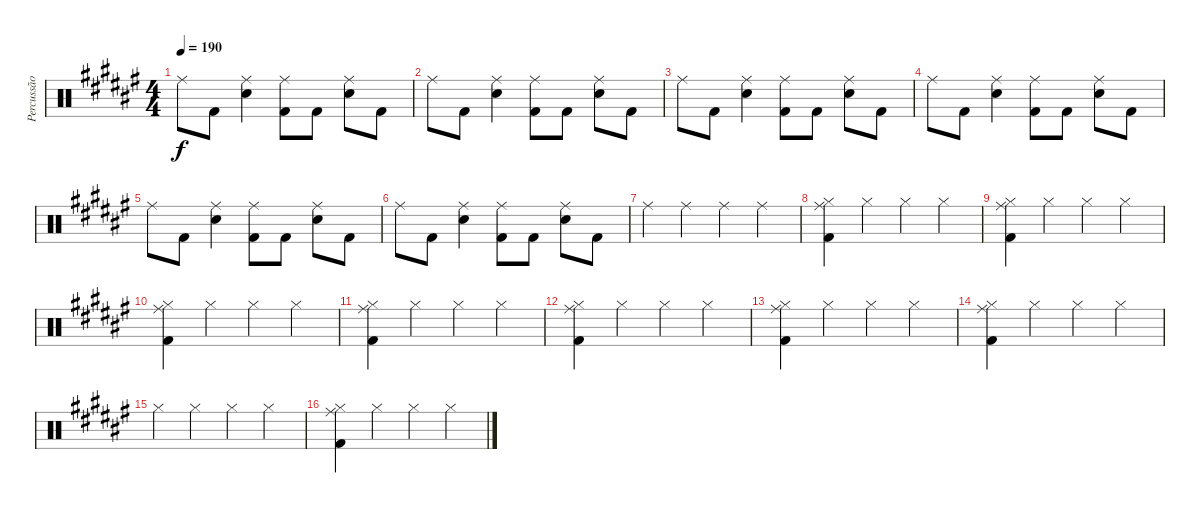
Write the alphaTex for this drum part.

\track ("Percussão" "Percussão") {instrument percussion}
\staff {score}
\articulation defaults
\ts (4 4)
\tempo 190
\clef neutral
\ks d#minor "Ride (middle)".8{dy f} "Kick (hit) 2".8
("Electric Snare (hit)" "Ride (middle)").4 ("Kick (hit) 2" "Ride (middle)").8 "Kick (hit) 2".8 ("Electric Snare (hit)" "Ride (middle)").8 "Kick (hit) 2".8 |
"Ride (middle)".8 "Kick (hit) 2".8 ("Electric Snare (hit)" "Ride (middle)").4 ("Kick (hit) 2" "Ride (middle)").8 "Kick (hit) 2".8 ("Electric Snare (hit)" "Ride (middle)").8 "Kick (hit) 2".8 |
"Ride (middle)".8 "Kick (hit) 2".8 ("Electric Snare (hit)" "Ride (middle)").4 ("Kick (hit) 2" "Ride (middle)").8 "Kick (hit) 2".8 ("Electric Snare (hit)" "Ride (middle)").8 "Kick (hit) 2".8 |
"Ride (middle)".8 "Kick (hit) 2".8 ("Electric Snare (hit)" "Ride (middle)").4 ("Kick (hit) 2" "Ride (middle)").8 "Kick (hit) 2".8 ("Electric Snare (hit)" "Ride (middle)").8 "Kick (hit) 2".8 |
"Ride (middle)".8 "Kick (hit) 2".8 ("Electric Snare (hit)" "Ride (middle)").4 ("Kick (hit) 2" "Ride (middle)").8 "Kick (hit) 2".8 ("Electric Snare (hit)" "Ride (middle)").8 "Kick (hit) 2".8 |
"Ride (middle)".8 "Kick (hit) 2".8 ("Electric Snare (hit)" "Ride (middle)").4 ("Kick (hit) 2" "Ride (middle)").8 "Kick (hit) 2".8 ("Electric Snare (hit)" "Ride (middle)").8 "Kick (hit) 2".8 |
"Ride (middle)".4 "Ride (middle)".4 "Ride (middle)".4 "Ride (middle)".4 |
("Hi-Hat (closed)" "Kick (hit) 2" "Ride (middle)").4 "Hi-Hat (closed)".4 "Hi-Hat (closed)".4 "Hi-Hat (closed)".4 |
("Hi-Hat (closed)" "Kick (hit) 2" "Ride (middle)").4 "Hi-Hat (closed)".4 "Hi-Hat (closed)".4 "Hi-Hat (closed)".4 |
("Hi-Hat (closed)" "Kick (hit) 2" "Ride (middle)").4 "Hi-Hat (closed)".4 "Hi-Hat (closed)".4 "Hi-Hat (closed)".4 |
("Hi-Hat (closed)" "Kick (hit) 2" "Ride (middle)").4 "Hi-Hat (closed)".4 "Hi-Hat (closed)".4 "Hi-Hat (closed)".4 |
("Hi-Hat (closed)" "Kick (hit) 2" "Ride (middle)").4 "Hi-Hat (closed)".4 "Hi-Hat (closed)".4 "Hi-Hat (closed)".4 |
("Hi-Hat (closed)" "Kick (hit) 2" "Ride (middle)").4 "Hi-Hat (closed)".4 "Hi-Hat (closed)".4 "Hi-Hat (closed)".4 |
("Hi-Hat (closed)" "Kick (hit) 2" "Ride (middle)").4 "Hi-Hat (closed)".4 "Hi-Hat (closed)".4 "Hi-Hat (closed)".4 |
"Hi-Hat (closed)".4 "Hi-Hat (closed)".4 "Hi-Hat (closed)".4 "Hi-Hat (closed)".4 |
("Hi-Hat (closed)" "Kick (hit) 2" "Ride (middle)").4 "Hi-Hat (closed)".4 "Hi-Hat (closed)".4 "Hi-Hat (closed)".4
